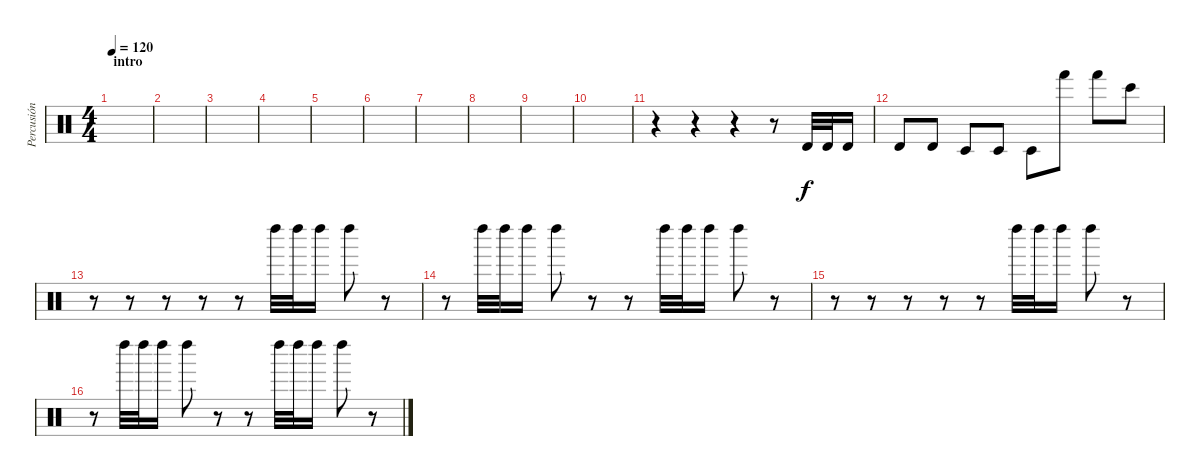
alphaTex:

\track ("Percusión" "Percusión") {instrument percussion}
\staff {score}
\articulation defaults
\ts (4 4)
\section ("" "intro")
\tempo 120
\clef neutral
\ks c
|
|
|
|
|
|
|
|
|
|
r.4 r.4 r.4 r.8 "Timbale high (hit)".32 "Timbale high (hit)".32 "Timbale high (hit)".16 |
"Timbale high (hit)".8 "Timbale high (hit)".8 "Timbale low (hit)".8 "Timbale low (hit)".8 "Timbale low (hit)".8 "Hand (hit)".8 "Hand (hit)".8 "Bongo High (hit)".8 |
r.8 r.8 r.8 r.8 r.8 "Left Maraca (hit)".32 "Left Maraca (hit)".32 "Left Maraca (hit)".16 "Left Maraca (hit)".8 r.8 |
r.8 "Left Maraca (hit)".32 "Left Maraca (hit)".32 "Left Maraca (hit)".16 "Left Maraca (hit)".8 r.8 r.8 "Left Maraca (hit)".32 "Left Maraca (hit)".32 "Left Maraca (hit)".16 "Left Maraca (hit)".8 r.8 |
r.8 r.8 r.8 r.8 r.8 "Left Maraca (hit)".32 "Left Maraca (hit)".32 "Left Maraca (hit)".16 "Left Maraca (hit)".8 r.8 |
r.8 "Left Maraca (hit)".32 "Left Maraca (hit)".32 "Left Maraca (hit)".16 "Left Maraca (hit)".8 r.8 r.8 "Left Maraca (hit)".32 "Left Maraca (hit)".32 "Left Maraca (hit)".16 "Left Maraca (hit)".8 r.8
